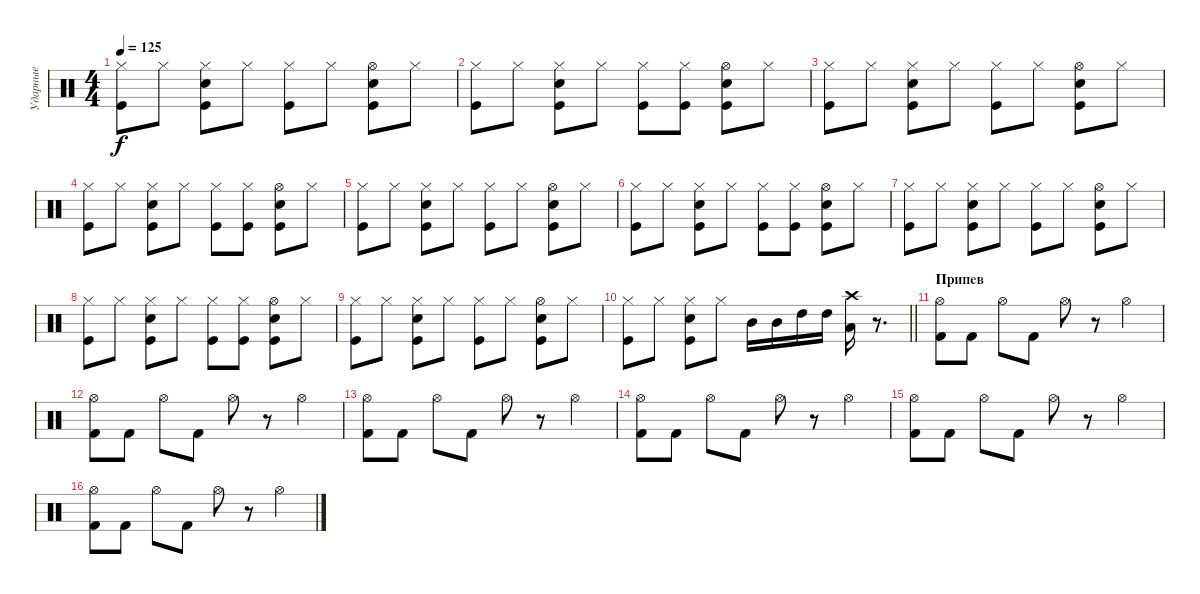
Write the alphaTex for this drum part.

\track ("Ударные" "Ударные") {instrument percussion}
\staff {score}
\articulation defaults
\ts (4 4)
\tempo 125
\clef neutral
\ks c
("Hi-Hat (closed)" "Kick (hit)").8{dy f} "Hi-Hat (closed)".8 ("Hi-Hat (closed)" "Kick (hit)" "Snare (hit) 2").8 "Hi-Hat (closed)".8 ("Hi-Hat (closed)" "Kick (hit)").8 "Hi-Hat (closed)".8 ("Hi-Hat (open)" "Kick (hit)" "Snare (hit) 2").8 "Hi-Hat (closed)".8 |
("Hi-Hat (closed)" "Kick (hit)").8 "Hi-Hat (closed)".8 ("Hi-Hat (closed)" "Kick (hit)" "Snare (hit) 2").8 "Hi-Hat (closed)".8 ("Hi-Hat (closed)" "Kick (hit)").8 ("Hi-Hat (closed)" "Kick (hit)").8 ("Hi-Hat (open)" "Kick (hit)" "Snare (hit) 2").8 "Hi-Hat (closed)".8 |
("Hi-Hat (closed)" "Kick (hit)").8 "Hi-Hat (closed)".8 ("Hi-Hat (closed)" "Kick (hit)" "Snare (hit) 2").8 "Hi-Hat (closed)".8 ("Hi-Hat (closed)" "Kick (hit)").8 "Hi-Hat (closed)".8 ("Hi-Hat (open)" "Kick (hit)" "Snare (hit) 2").8 "Hi-Hat (closed)".8 |
("Hi-Hat (closed)" "Kick (hit)").8 "Hi-Hat (closed)".8 ("Hi-Hat (closed)" "Kick (hit)" "Snare (hit) 2").8 "Hi-Hat (closed)".8 ("Hi-Hat (closed)" "Kick (hit)").8 ("Hi-Hat (closed)" "Kick (hit)").8 ("Hi-Hat (open)" "Kick (hit)" "Snare (hit) 2").8 "Hi-Hat (closed)".8 |
("Hi-Hat (closed)" "Kick (hit)").8 "Hi-Hat (closed)".8 ("Hi-Hat (closed)" "Kick (hit)" "Snare (hit) 2").8 "Hi-Hat (closed)".8 ("Hi-Hat (closed)" "Kick (hit)").8 "Hi-Hat (closed)".8 ("Hi-Hat (open)" "Kick (hit)" "Snare (hit) 2").8 "Hi-Hat (closed)".8 |
("Hi-Hat (closed)" "Kick (hit)").8 "Hi-Hat (closed)".8 ("Hi-Hat (closed)" "Kick (hit)" "Snare (hit) 2").8 "Hi-Hat (closed)".8 ("Hi-Hat (closed)" "Kick (hit)").8 ("Hi-Hat (closed)" "Kick (hit)").8 ("Hi-Hat (open)" "Kick (hit)" "Snare (hit) 2").8 "Hi-Hat (closed)".8 |
("Hi-Hat (closed)" "Kick (hit)").8 "Hi-Hat (closed)".8 ("Hi-Hat (closed)" "Kick (hit)" "Snare (hit) 2").8 "Hi-Hat (closed)".8 ("Hi-Hat (closed)" "Kick (hit)").8 "Hi-Hat (closed)".8 ("Hi-Hat (open)" "Kick (hit)" "Snare (hit) 2").8 "Hi-Hat (closed)".8 |
("Hi-Hat (closed)" "Kick (hit)").8 "Hi-Hat (closed)".8 ("Hi-Hat (closed)" "Kick (hit)" "Snare (hit) 2").8 "Hi-Hat (closed)".8 ("Hi-Hat (closed)" "Kick (hit)").8 ("Hi-Hat (closed)" "Kick (hit)").8 ("Hi-Hat (open)" "Kick (hit)" "Snare (hit) 2").8 "Hi-Hat (closed)".8 |
("Hi-Hat (closed)" "Kick (hit)").8 "Hi-Hat (closed)".8 ("Hi-Hat (closed)" "Kick (hit)" "Snare (hit) 2").8 "Hi-Hat (closed)".8 ("Hi-Hat (closed)" "Kick (hit)").8 "Hi-Hat (closed)".8 ("Hi-Hat (open)" "Kick (hit)" "Snare (hit) 2").8 "Hi-Hat (closed)".8 |
\barLineRight lightlight
("Hi-Hat (closed)" "Kick (hit)").8 "Hi-Hat (closed)".8 ("Hi-Hat (closed)" "Kick (hit)" "Snare (hit) 2").8 "Hi-Hat (closed)".8 "Mid Tom (hit)".16 "Mid Tom (hit)".16 "High Tom (hit)".16 "High Tom (hit)".16 ("Crash high (hit)" "Low Floor Tom (hit)").16 r.8{d} |
\section ("" "Припев")
("Kick (hit) 2" "Hi-Hat (open)").8 "Kick (hit) 2".8 "Hi-Hat (open)".8 "Kick (hit) 2".8 "Hi-Hat (open)".8 r.8 "Hi-Hat (open)".4 |
("Kick (hit) 2" "Hi-Hat (open)").8 "Kick (hit) 2".8 "Hi-Hat (open)".8 "Kick (hit) 2".8 "Hi-Hat (open)".8 r.8 "Hi-Hat (open)".4 |
("Kick (hit) 2" "Hi-Hat (open)").8 "Kick (hit) 2".8 "Hi-Hat (open)".8 "Kick (hit) 2".8 "Hi-Hat (open)".8 r.8 "Hi-Hat (open)".4 |
("Kick (hit) 2" "Hi-Hat (open)").8 "Kick (hit) 2".8 "Hi-Hat (open)".8 "Kick (hit) 2".8 "Hi-Hat (open)".8 r.8 "Hi-Hat (open)".4 |
("Kick (hit) 2" "Hi-Hat (open)").8 "Kick (hit) 2".8 "Hi-Hat (open)".8 "Kick (hit) 2".8 "Hi-Hat (open)".8 r.8 "Hi-Hat (open)".4 |
("Kick (hit) 2" "Hi-Hat (open)").8 "Kick (hit) 2".8 "Hi-Hat (open)".8 "Kick (hit) 2".8 "Hi-Hat (open)".8 r.8 "Hi-Hat (open)".4
